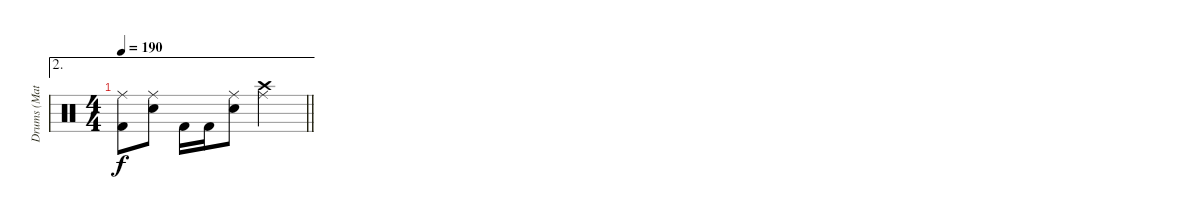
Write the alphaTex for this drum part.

\track ("Drums (Matt/Chris)" "Drums (Mat") {instrument percussion}
\staff {score}
\articulation defaults
\ae 2
\ts (4 4)
\tempo 190
\clef neutral
\barLineRight lightlight
\ks c
("Ride (middle)" "Kick (hit) 2").8{dy f} ("Ride (middle)" "Snare (hit) 2").8 "Kick (hit) 2".16 "Kick (hit) 2".16 ("Ride (middle)" "Snare (hit) 2").8 ("Crash high (hit)" "Ride (middle)").2
